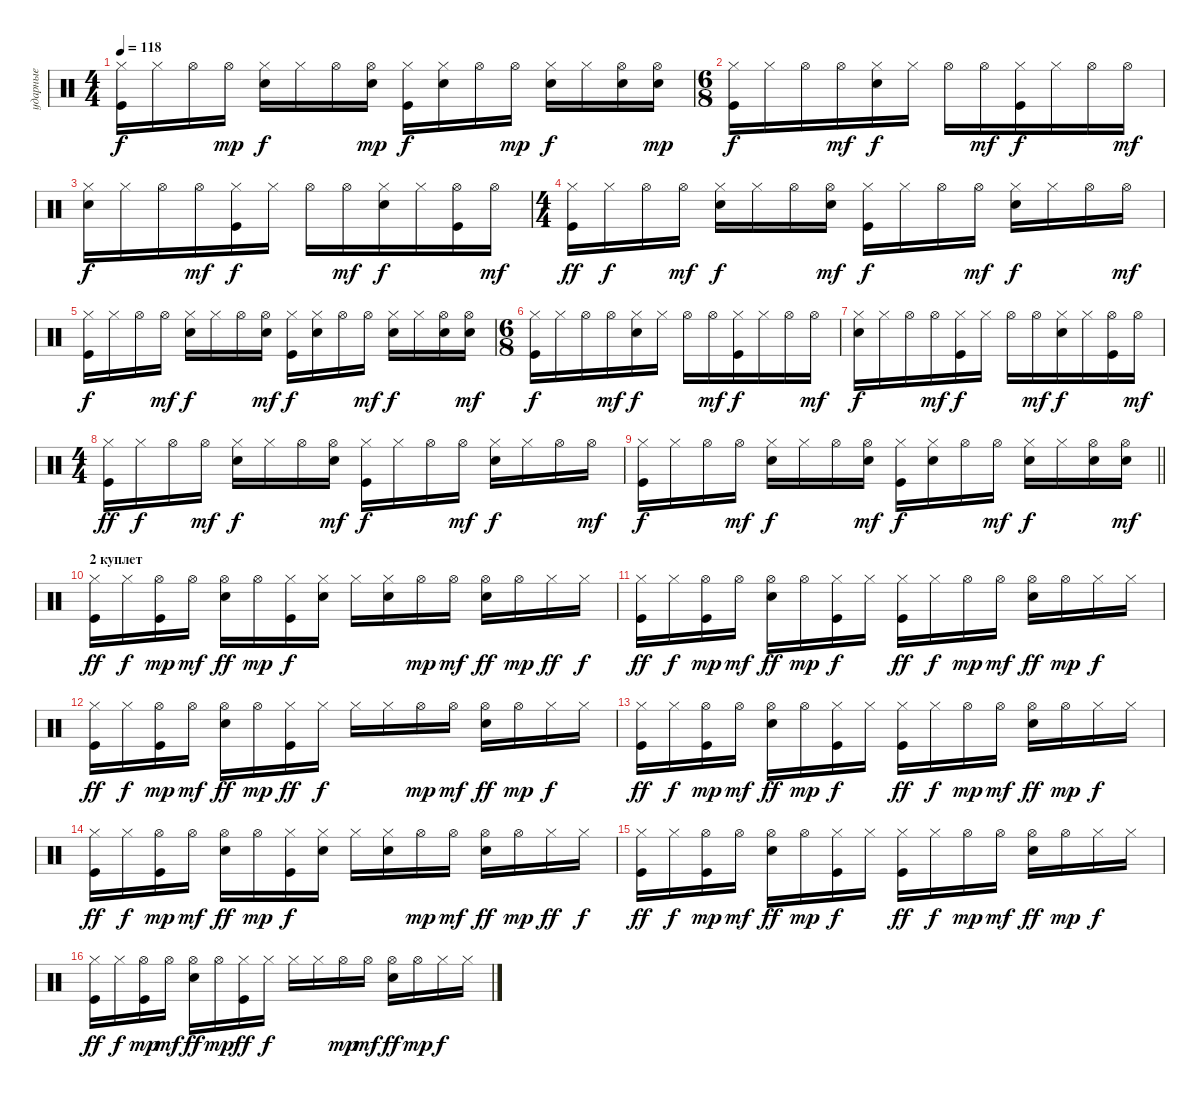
\track ("ударные" "ударные") {instrument percussion}
\staff {score}
\articulation defaults
\ts (4 4)
\tempo 118
\clef neutral
\ks c
("Hi-Hat (closed)" "Kick (hit)").16{dy f} "Hi-Hat (closed)".16 "Hi-Hat (open)".16 "Hi-Hat (open)".16{dy mp} ("Hi-Hat (closed)" "Electric Snare (hit)").16{dy f} "Hi-Hat (closed)".16 "Hi-Hat (open)".16 ("Electric Snare (hit)" "Hi-Hat (open)").16{dy mp} ("Kick (hit)" "Hi-Hat (closed)").16{dy f} ("Electric Snare (hit)" "Hi-Hat (closed)").16 "Hi-Hat (open)".16 "Hi-Hat (open)".16{dy mp} ("Hi-Hat (closed)" "Electric Snare (hit)").16{dy f} "Hi-Hat (closed)".16 ("Electric Snare (hit)" "Hi-Hat (open)").16 ("Electric Snare (hit)" "Hi-Hat (open)").16{dy mp} |
\ts (6 8)
("Hi-Hat (closed)" "Kick (hit)").16{dy f} "Hi-Hat (closed)".16 "Hi-Hat (open)".16 "Hi-Hat (open)".16{dy mf} ("Electric Snare (hit)" "Hi-Hat (closed)").16{dy f} "Hi-Hat (closed)".16 "Hi-Hat (open)".16 "Hi-Hat (open)".16{dy mf} ("Kick (hit)" "Hi-Hat (closed)").16{dy f} "Hi-Hat (closed)".16 "Hi-Hat (open)".16 "Hi-Hat (open)".16{dy mf} |
("Electric Snare (hit)" "Hi-Hat (closed)").16{dy f} "Hi-Hat (closed)".16 "Hi-Hat (open)".16 "Hi-Hat (open)".16{dy mf} ("Kick (hit)" "Hi-Hat (closed)").16{dy f} "Hi-Hat (closed)".16 "Hi-Hat (open)".16 "Hi-Hat (open)".16{dy mf} ("Electric Snare (hit)" "Hi-Hat (closed)").16{dy f} "Hi-Hat (closed)".16 ("Kick (hit)" "Hi-Hat (open)").16 "Hi-Hat (open)".16{dy mf} |
\ts (4 4)
("Kick (hit)" "Hi-Hat (closed)").16{dy ff} "Hi-Hat (closed)".16{dy f} "Hi-Hat (open)".16 "Hi-Hat (open)".16{dy mf} ("Electric Snare (hit)" "Hi-Hat (closed)").16{dy f} "Hi-Hat (closed)".16 "Hi-Hat (open)".16 ("Hi-Hat (open)" "Electric Snare (hit)").16{dy mf} ("Hi-Hat (closed)" "Kick (hit)").16{dy f} "Hi-Hat (closed)".16 "Hi-Hat (open)".16 "Hi-Hat (open)".16{dy mf} ("Electric Snare (hit)" "Hi-Hat (closed)").16{dy f} "Hi-Hat (closed)".16 "Hi-Hat (open)".16 "Hi-Hat (open)".16{dy mf} |
("Kick (hit)" "Hi-Hat (closed)").16{dy f} "Hi-Hat (closed)".16 "Hi-Hat (open)".16 "Hi-Hat (open)".16{dy mf} ("Electric Snare (hit)" "Hi-Hat (closed)").16{dy f} "Hi-Hat (closed)".16 "Hi-Hat (open)".16 ("Hi-Hat (open)" "Electric Snare (hit)").16{dy mf} ("Hi-Hat (closed)" "Kick (hit)").16{dy f} ("Electric Snare (hit)" "Hi-Hat (closed)").16 "Hi-Hat (open)".16 "Hi-Hat (open)".16{dy mf} ("Electric Snare (hit)" "Hi-Hat (closed)").16{dy f} "Hi-Hat (closed)".16 ("Electric Snare (hit)" "Hi-Hat (open)").16 ("Electric Snare (hit)" "Hi-Hat (open)").16{dy mf} |
\ts (6 8)
("Hi-Hat (closed)" "Kick (hit)").16{dy f} "Hi-Hat (closed)".16 "Hi-Hat (open)".16 "Hi-Hat (open)".16{dy mf} ("Electric Snare (hit)" "Hi-Hat (closed)").16{dy f} "Hi-Hat (closed)".16 "Hi-Hat (open)".16 "Hi-Hat (open)".16{dy mf} ("Kick (hit)" "Hi-Hat (closed)").16{dy f} "Hi-Hat (closed)".16 "Hi-Hat (open)".16 "Hi-Hat (open)".16{dy mf} |
("Electric Snare (hit)" "Hi-Hat (closed)").16{dy f} "Hi-Hat (closed)".16 "Hi-Hat (open)".16 "Hi-Hat (open)".16{dy mf} ("Kick (hit)" "Hi-Hat (closed)").16{dy f} "Hi-Hat (closed)".16 "Hi-Hat (open)".16 "Hi-Hat (open)".16{dy mf} ("Electric Snare (hit)" "Hi-Hat (closed)").16{dy f} "Hi-Hat (closed)".16 ("Kick (hit)" "Hi-Hat (open)").16 "Hi-Hat (open)".16{dy mf} |
\ts (4 4)
("Kick (hit)" "Hi-Hat (closed)").16{dy ff} "Hi-Hat (closed)".16{dy f} "Hi-Hat (open)".16 "Hi-Hat (open)".16{dy mf} ("Electric Snare (hit)" "Hi-Hat (closed)").16{dy f} "Hi-Hat (closed)".16 "Hi-Hat (open)".16 ("Hi-Hat (open)" "Electric Snare (hit)").16{dy mf} ("Hi-Hat (closed)" "Kick (hit)").16{dy f} "Hi-Hat (closed)".16 "Hi-Hat (open)".16 "Hi-Hat (open)".16{dy mf} ("Electric Snare (hit)" "Hi-Hat (closed)").16{dy f} "Hi-Hat (closed)".16 "Hi-Hat (open)".16 "Hi-Hat (open)".16{dy mf} |
\barLineRight lightlight
("Kick (hit)" "Hi-Hat (closed)").16{dy f} "Hi-Hat (closed)".16 "Hi-Hat (open)".16 "Hi-Hat (open)".16{dy mf} ("Electric Snare (hit)" "Hi-Hat (closed)").16{dy f} "Hi-Hat (closed)".16 "Hi-Hat (open)".16 ("Hi-Hat (open)" "Electric Snare (hit)").16{dy mf} ("Hi-Hat (closed)" "Kick (hit)").16{dy f} ("Electric Snare (hit)" "Hi-Hat (closed)").16 "Hi-Hat (open)".16 "Hi-Hat (open)".16{dy mf} ("Electric Snare (hit)" "Hi-Hat (closed)").16{dy f} "Hi-Hat (closed)".16 ("Electric Snare (hit)" "Hi-Hat (open)").16 ("Electric Snare (hit)" "Hi-Hat (open)").16{dy mf} |
\section ("" "2 куплет")
("Kick (hit)" "Hi-Hat (closed)").16{dy ff} "Hi-Hat (closed)".16{dy f} ("Kick (hit)" "Hi-Hat (open)").16{dy mp} "Hi-Hat (open)".16{dy mf} ("Electric Snare (hit)" "Hi-Hat (open)").16{dy ff} "Hi-Hat (open)".16{dy mp} ("Kick (hit)" "Hi-Hat (closed)").16{dy f} ("Electric Snare (hit)" "Hi-Hat (closed)").16 "Hi-Hat (closed)".16 ("Electric Snare (hit)" "Hi-Hat (closed)").16 "Hi-Hat (open)".16{dy mp} "Hi-Hat (open)".16{dy mf} ("Hi-Hat (open)" "Electric Snare (hit)").16{dy ff} "Hi-Hat (open)".16{dy mp} "Hi-Hat (closed)".16{dy ff} "Hi-Hat (closed)".16{dy f} |
("Kick (hit)" "Hi-Hat (closed)").16{dy ff} "Hi-Hat (closed)".16{dy f} ("Kick (hit)" "Hi-Hat (open)").16{dy mp} "Hi-Hat (open)".16{dy mf} ("Electric Snare (hit)" "Hi-Hat (open)").16{dy ff} "Hi-Hat (open)".16{dy mp} ("Kick (hit)" "Hi-Hat (closed)").16{dy f} "Hi-Hat (closed)".16 ("Kick (hit)" "Hi-Hat (closed)").16{dy ff} "Hi-Hat (closed)".16{dy f} "Hi-Hat (open)".16{dy mp} "Hi-Hat (open)".16{dy mf} ("Electric Snare (hit)" "Hi-Hat (open)").16{dy ff} "Hi-Hat (open)".16{dy mp} "Hi-Hat (closed)".16{dy f} "Hi-Hat (closed)".16 |
("Kick (hit)" "Hi-Hat (closed)").16{dy ff} "Hi-Hat (closed)".16{dy f} ("Kick (hit)" "Hi-Hat (open)").16{dy mp} "Hi-Hat (open)".16{dy mf} ("Electric Snare (hit)" "Hi-Hat (open)").16{dy ff} "Hi-Hat (open)".16{dy mp} ("Kick (hit)" "Hi-Hat (closed)").16{dy ff} "Hi-Hat (closed)".16{dy f} "Hi-Hat (closed)".16 "Hi-Hat (closed)".16 "Hi-Hat (open)".16{dy mp} "Hi-Hat (open)".16{dy mf} ("Electric Snare (hit)" "Hi-Hat (open)").16{dy ff} "Hi-Hat (open)".16{dy mp} "Hi-Hat (closed)".16{dy f} "Hi-Hat (closed)".16 |
("Kick (hit)" "Hi-Hat (closed)").16{dy ff} "Hi-Hat (closed)".16{dy f} ("Kick (hit)" "Hi-Hat (open)").16{dy mp} "Hi-Hat (open)".16{dy mf} ("Electric Snare (hit)" "Hi-Hat (open)").16{dy ff} "Hi-Hat (open)".16{dy mp} ("Kick (hit)" "Hi-Hat (closed)").16{dy f} "Hi-Hat (closed)".16 ("Kick (hit)" "Hi-Hat (closed)").16{dy ff} "Hi-Hat (closed)".16{dy f} "Hi-Hat (open)".16{dy mp} "Hi-Hat (open)".16{dy mf} ("Electric Snare (hit)" "Hi-Hat (open)").16{dy ff} "Hi-Hat (open)".16{dy mp} "Hi-Hat (closed)".16{dy f} "Hi-Hat (closed)".16 |
("Kick (hit)" "Hi-Hat (closed)").16{dy ff} "Hi-Hat (closed)".16{dy f} ("Kick (hit)" "Hi-Hat (open)").16{dy mp} "Hi-Hat (open)".16{dy mf} ("Electric Snare (hit)" "Hi-Hat (open)").16{dy ff} "Hi-Hat (open)".16{dy mp} ("Kick (hit)" "Hi-Hat (closed)").16{dy f} ("Electric Snare (hit)" "Hi-Hat (closed)").16 "Hi-Hat (closed)".16 ("Electric Snare (hit)" "Hi-Hat (closed)").16 "Hi-Hat (open)".16{dy mp} "Hi-Hat (open)".16{dy mf} ("Hi-Hat (open)" "Electric Snare (hit)").16{dy ff} "Hi-Hat (open)".16{dy mp} "Hi-Hat (closed)".16{dy ff} "Hi-Hat (closed)".16{dy f} |
("Kick (hit)" "Hi-Hat (closed)").16{dy ff} "Hi-Hat (closed)".16{dy f} ("Kick (hit)" "Hi-Hat (open)").16{dy mp} "Hi-Hat (open)".16{dy mf} ("Electric Snare (hit)" "Hi-Hat (open)").16{dy ff} "Hi-Hat (open)".16{dy mp} ("Kick (hit)" "Hi-Hat (closed)").16{dy f} "Hi-Hat (closed)".16 ("Kick (hit)" "Hi-Hat (closed)").16{dy ff} "Hi-Hat (closed)".16{dy f} "Hi-Hat (open)".16{dy mp} "Hi-Hat (open)".16{dy mf} ("Electric Snare (hit)" "Hi-Hat (open)").16{dy ff} "Hi-Hat (open)".16{dy mp} "Hi-Hat (closed)".16{dy f} "Hi-Hat (closed)".16 |
("Kick (hit)" "Hi-Hat (closed)").16{dy ff} "Hi-Hat (closed)".16{dy f} ("Kick (hit)" "Hi-Hat (open)").16{dy mp} "Hi-Hat (open)".16{dy mf} ("Electric Snare (hit)" "Hi-Hat (open)").16{dy ff} "Hi-Hat (open)".16{dy mp} ("Kick (hit)" "Hi-Hat (closed)").16{dy ff} "Hi-Hat (closed)".16{dy f} "Hi-Hat (closed)".16 "Hi-Hat (closed)".16 "Hi-Hat (open)".16{dy mp} "Hi-Hat (open)".16{dy mf} ("Electric Snare (hit)" "Hi-Hat (open)").16{dy ff} "Hi-Hat (open)".16{dy mp} "Hi-Hat (closed)".16{dy f} "Hi-Hat (closed)".16
